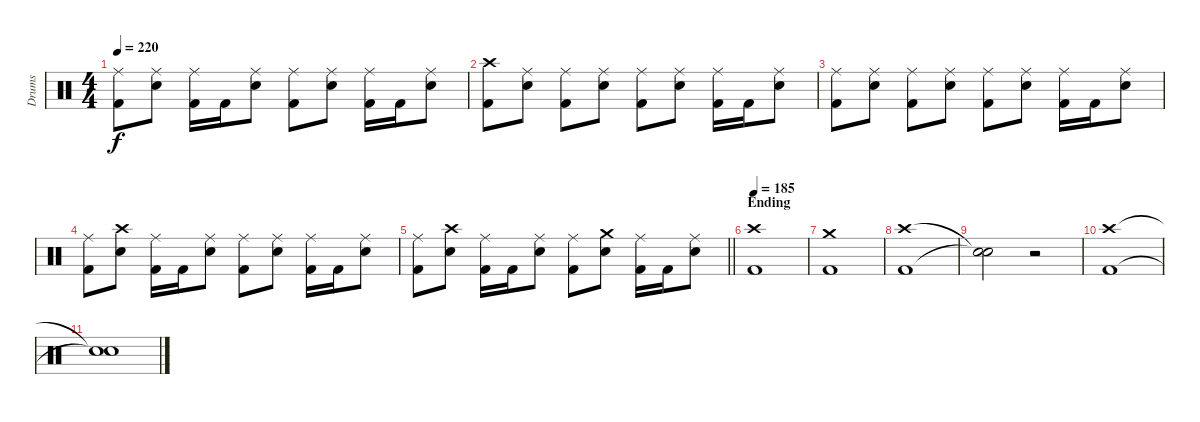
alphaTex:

\track ("Drums" "Drums") {instrument percussion}
\staff {score}
\articulation defaults
\ts (4 4)
\tempo 220
\clef neutral
\ks c
("Ride (middle)" "Kick (hit) 2").8{dy f} ("Ride (middle)" "Snare (hit) 2").8 ("Ride (middle)" "Kick (hit) 2").16 "Kick (hit) 2".16 ("Ride (middle)" "Snare (hit) 2").8 ("Ride (middle)" "Kick (hit) 2").8 ("Ride (middle)" "Snare (hit) 2").8 ("Ride (middle)" "Kick (hit) 2").16 "Kick (hit) 2".16 ("Ride (middle)" "Snare (hit) 2").8 |
("Crash high (hit)" "Kick (hit) 2").8 ("Ride (middle)" "Snare (hit) 2").8 ("Ride (middle)" "Kick (hit) 2").8 ("Ride (middle)" "Snare (hit) 2").8 ("Ride (middle)" "Kick (hit) 2").8 ("Ride (middle)" "Snare (hit) 2").8 ("Ride (middle)" "Kick (hit) 2").16 "Kick (hit) 2".16 ("Ride (middle)" "Snare (hit) 2").8 |
("Ride (middle)" "Kick (hit) 2").8 ("Ride (middle)" "Snare (hit) 2").8 ("Ride (middle)" "Kick (hit) 2").8 ("Ride (middle)" "Snare (hit) 2").8 ("Ride (middle)" "Kick (hit) 2").8 ("Ride (middle)" "Snare (hit) 2").8 ("Ride (middle)" "Kick (hit) 2").16 "Kick (hit) 2".16 ("Ride (middle)" "Snare (hit) 2").8 |
("Ride (middle)" "Kick (hit) 2").8 ("Crash high (hit)" "Snare (hit) 2").8 ("Ride (middle)" "Kick (hit) 2").16 "Kick (hit) 2".16 ("Ride (middle)" "Snare (hit) 2").8 ("Ride (middle)" "Kick (hit) 2").8 ("Ride (middle)" "Snare (hit) 2").8 ("Ride (middle)" "Kick (hit) 2").16 "Kick (hit) 2".16 ("Ride (middle)" "Snare (hit) 2").8 |
\barLineRight lightlight
("Ride (middle)" "Kick (hit) 2").8 ("Crash high (hit)" "Snare (hit) 2").8 ("Ride (middle)" "Kick (hit) 2").16 "Kick (hit) 2".16 ("Ride (middle)" "Snare (hit) 2").8 ("Ride (middle)" "Kick (hit) 2").8 ("Crash medium (hit)" "Snare (hit) 2").8 ("Ride (middle)" "Kick (hit) 2").16 "Kick (hit) 2".16 ("Ride (middle)" "Snare (hit) 2").8 |
\section ("" "Ending")
\tempo 185
("Crash high (hit)" "Kick (hit) 2").1 |
("Crash medium (hit)" "Kick (hit) 2").1 |
("Crash high (hit)" "Kick (hit) 2").1 |
("Snare (hit)"{t} "Snare (hit)"{t}).2 r.2 |
("Crash high (hit)" "Kick (hit) 2").1 |
("Snare (hit)"{t} "Snare (hit)"{t}).1
